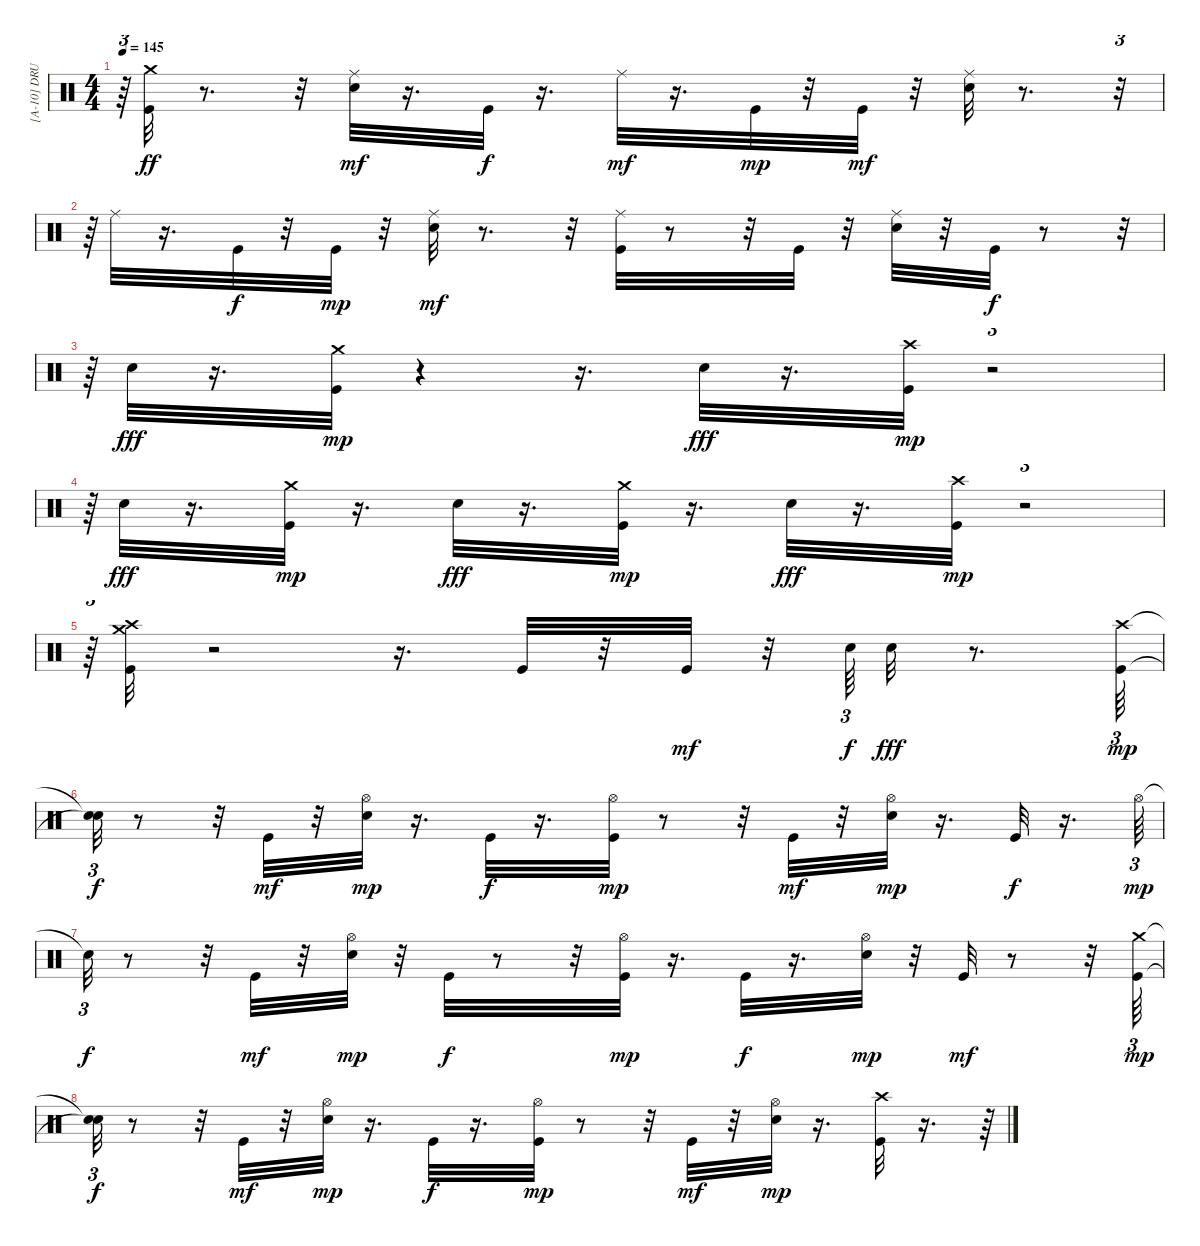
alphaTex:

\track ("[A-10] DRUMS" "[A-10] DRU") {instrument percussion}
\staff {score}
\articulation defaults
\ts (4 4)
\tempo 145
\clef neutral
\ks c
r.64{tu (3 2) dy f} ("Crash medium (hit)" "Kick (hit)").32{dy ff} r.8{d} r.32 ("Snare (hit) 2" "Ride (middle)").32{dy mf} r.16{d} "Kick (hit)".32{dy f} r.16{d} "Ride (middle)".32{dy mf} r.16{d} "Kick (hit)".32{dy mp} r.32 "Kick (hit)".32{dy mf} r.32 ("Snare (hit) 2" "Ride (middle)").32 r.8{d} r.32{tu (3 2)} |
r.64{tu (3 2)} "Ride (middle)".32 r.16{d} "Kick (hit)".32{dy f} r.32 "Kick (hit)".32{dy mp} r.32 ("Snare (hit) 2" "Ride (middle)").32{dy mf} r.8{d} r.32 ("Kick (hit)" "Ride (middle)").32 r.8 r.32 "Kick (hit)".32 r.32 ("Snare (hit) 2" "Ride (middle)").32 r.32 "Kick (hit)".32{dy f} r.8 r.32{tu (3 2)} |
r.64{tu (3 2)} "Snare (hit) 2".32{dy fff} r.16{d} ("Kick (hit)" "Crash medium (hit)").32{dy mp} r.4 r.16{d} "Snare (hit) 2".32{dy fff} r.16{d} ("Kick (hit)" "Crash high (hit)").32{dy mp} r.2{tu (3 2)} |
r.64{tu (3 2)} "Snare (hit) 2".32{dy fff} r.16{d} ("Kick (hit)" "Crash medium (hit)").32{dy mp} r.16{d} "Snare (hit) 2".32{dy fff} r.16{d} ("Kick (hit)" "Crash medium (hit)").32{dy mp} r.16{d} "Snare (hit) 2".32{dy fff} r.16{d} ("Kick (hit)" "Crash high (hit)").32{dy mp} r.2{tu (3 2)} |
r.64{tu (3 2)} ("Kick (hit)" "Crash medium (hit)" "Crash high (hit)").32 r.2 r.16{d} "Kick (hit)".32 r.32 "Kick (hit)".32{dy mf} r.32 "Snare (hit) 2".64{tu (3 2) dy f} "Snare (hit) 2".32{dy fff} r.8{d} ("Kick (hit)" "Crash high (hit)").64{tu (3 2) dy mp} |
("Snare (hit)"{t} "Snare (hit)"{t}).32{tu (3 2) dy f} r.8 r.32 "Kick (hit)".32{dy mf} r.32 ("Snare (hit) 2" "Hi-Hat (open)").32{dy mp} r.16{d} "Kick (hit)".32{dy f} r.16{d} ("Kick (hit)" "Hi-Hat (open)").32{dy mp} r.8 r.32 "Kick (hit)".32{dy mf} r.32 ("Snare (hit) 2" "Hi-Hat (open)").32{dy mp} r.16{d} "Kick (hit)".32{dy f} r.16{d} "Hi-Hat (open)".64{tu (3 2) dy mp} |
"Snare (hit)"{t}.32{tu (3 2) dy f} r.8 r.32 "Kick (hit)".32{dy mf} r.32 ("Snare (hit) 2" "Hi-Hat (open)").32{dy mp} r.32 "Kick (hit)".32{dy f} r.8 r.32 ("Kick (hit)" "Hi-Hat (open)").32{dy mp} r.16{d} "Kick (hit)".32{dy f} r.16{d} ("Snare (hit) 2" "Hi-Hat (open)").32{dy mp} r.32 "Kick (hit)".32{dy mf} r.8 r.32 ("Kick (hit)" "Crash medium (hit)").64{tu (3 2) dy mp} |
("Snare (hit)"{t} "Snare (hit)"{t}).32{tu (3 2) dy f} r.8 r.32 "Kick (hit)".32{dy mf} r.32 ("Snare (hit) 2" "Hi-Hat (open)").32{dy mp} r.16{d} "Kick (hit)".32{dy f} r.16{d} ("Kick (hit)" "Hi-Hat (open)").32{dy mp} r.8 r.32 "Kick (hit)".32{dy mf} r.32 ("Snare (hit) 2" "Hi-Hat (open)").32{dy mp} r.16{d} ("Kick (hit)" "Crash high (hit)").32 r.16{d} r.64{tu (3 2)}
